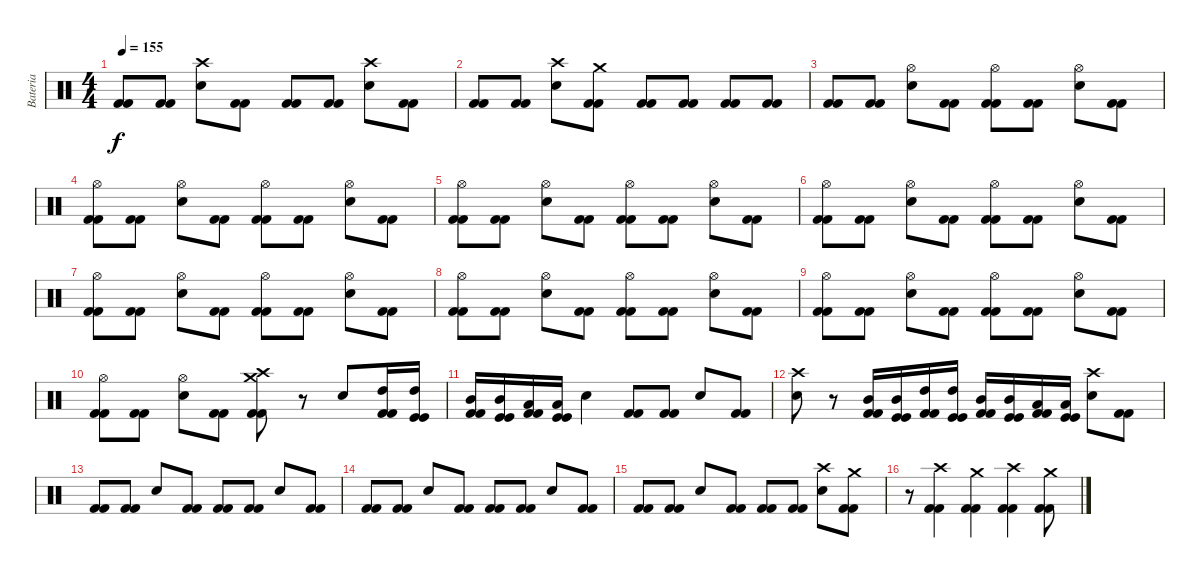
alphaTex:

\track ("Bateria" "Bateria") {instrument percussion}
\staff {score}
\articulation defaults
\ts (4 4)
\tempo 155
\clef neutral
\ks c
("Kick (hit) 2" "Kick (hit) 2").8{dy f} ("Kick (hit) 2" "Kick (hit) 2").8 ("Snare (hit) 2" "Crash high (hit)").8 ("Kick (hit) 2" "Kick (hit) 2").8 ("Kick (hit) 2" "Kick (hit) 2").8 ("Kick (hit) 2" "Kick (hit) 2").8 ("Snare (hit) 2" "Crash high (hit)").8 ("Kick (hit) 2" "Kick (hit) 2").8 |
("Kick (hit) 2" "Kick (hit) 2").8 ("Kick (hit) 2" "Kick (hit) 2").8 ("Snare (hit) 2" "Crash high (hit)").8 ("Kick (hit) 2" "Kick (hit) 2" "Crash medium (hit)").8 ("Kick (hit) 2" "Kick (hit) 2").8 ("Kick (hit) 2" "Kick (hit) 2").8 ("Kick (hit) 2" "Kick (hit) 2").8 ("Kick (hit) 2" "Kick (hit) 2").8 |
("Kick (hit) 2" "Kick (hit) 2").8 ("Kick (hit) 2" "Kick (hit) 2").8 ("Snare (hit) 2" "Hi-Hat (open)").8 ("Kick (hit) 2" "Kick (hit) 2").8 ("Kick (hit) 2" "Kick (hit) 2" "Hi-Hat (open)").8 ("Kick (hit) 2" "Kick (hit) 2").8 ("Snare (hit) 2" "Hi-Hat (open)").8 ("Kick (hit) 2" "Kick (hit) 2").8 |
("Kick (hit) 2" "Kick (hit) 2" "Hi-Hat (open)").8 ("Kick (hit) 2" "Kick (hit) 2").8 ("Snare (hit) 2" "Hi-Hat (open)").8 ("Kick (hit) 2" "Kick (hit) 2").8 ("Kick (hit) 2" "Kick (hit) 2" "Hi-Hat (open)").8 ("Kick (hit) 2" "Kick (hit) 2").8 ("Snare (hit) 2" "Hi-Hat (open)").8 ("Kick (hit) 2" "Kick (hit) 2").8 |
("Kick (hit) 2" "Kick (hit) 2" "Hi-Hat (open)").8 ("Kick (hit) 2" "Kick (hit) 2").8 ("Snare (hit) 2" "Hi-Hat (open)").8 ("Kick (hit) 2" "Kick (hit) 2").8 ("Kick (hit) 2" "Kick (hit) 2" "Hi-Hat (open)").8 ("Kick (hit) 2" "Kick (hit) 2").8 ("Snare (hit) 2" "Hi-Hat (open)").8 ("Kick (hit) 2" "Kick (hit) 2").8 |
("Kick (hit) 2" "Kick (hit) 2" "Hi-Hat (open)").8 ("Kick (hit) 2" "Kick (hit) 2").8 ("Snare (hit) 2" "Hi-Hat (open)").8 ("Kick (hit) 2" "Kick (hit) 2").8 ("Kick (hit) 2" "Kick (hit) 2" "Hi-Hat (open)").8 ("Kick (hit) 2" "Kick (hit) 2").8 ("Snare (hit) 2" "Hi-Hat (open)").8 ("Kick (hit) 2" "Kick (hit) 2").8 |
("Kick (hit) 2" "Kick (hit) 2" "Hi-Hat (open)").8 ("Kick (hit) 2" "Kick (hit) 2").8 ("Snare (hit) 2" "Hi-Hat (open)").8 ("Kick (hit) 2" "Kick (hit) 2").8 ("Kick (hit) 2" "Kick (hit) 2" "Hi-Hat (open)").8 ("Kick (hit) 2" "Kick (hit) 2").8 ("Snare (hit) 2" "Hi-Hat (open)").8 ("Kick (hit) 2" "Kick (hit) 2").8 |
("Kick (hit) 2" "Kick (hit) 2" "Hi-Hat (open)").8 ("Kick (hit) 2" "Kick (hit) 2").8 ("Snare (hit) 2" "Hi-Hat (open)").8 ("Kick (hit) 2" "Kick (hit) 2").8 ("Kick (hit) 2" "Kick (hit) 2" "Hi-Hat (open)").8 ("Kick (hit) 2" "Kick (hit) 2").8 ("Snare (hit) 2" "Hi-Hat (open)").8 ("Kick (hit) 2" "Kick (hit) 2").8 |
("Kick (hit) 2" "Kick (hit) 2" "Hi-Hat (open)").8 ("Kick (hit) 2" "Kick (hit) 2").8 ("Snare (hit) 2" "Hi-Hat (open)").8 ("Kick (hit) 2" "Kick (hit) 2").8 ("Kick (hit) 2" "Kick (hit) 2" "Hi-Hat (open)").8 ("Kick (hit) 2" "Kick (hit) 2").8 ("Snare (hit) 2" "Hi-Hat (open)").8 ("Kick (hit) 2" "Kick (hit) 2").8 |
("Kick (hit) 2" "Kick (hit) 2" "Hi-Hat (open)").8 ("Kick (hit) 2" "Kick (hit) 2").8 ("Snare (hit) 2" "Hi-Hat (open)").8 ("Kick (hit) 2" "Kick (hit) 2").8 ("Kick (hit) 2" "Kick (hit) 2" "Crash high (hit)" "Crash medium (hit)").8 r.8 "Snare (hit) 2".8 ("Kick (hit) 2" "Kick (hit) 2" "High Tom (hit)").16 ("Kick (hit)" "Kick (hit)" "High Tom (hit)").16 |
("Kick (hit) 2" "Kick (hit) 2" "Mid Tom (hit)").16 ("Kick (hit)" "Kick (hit)" "Mid Tom (hit)").16 ("Kick (hit) 2" "Kick (hit) 2" "Low Tom (hit)").16 ("Kick (hit)" "Kick (hit)" "Low Tom (hit)").16 "Snare (hit) 2".4 ("Kick (hit) 2" "Kick (hit) 2").8 ("Kick (hit) 2" "Kick (hit) 2").8 "Snare (hit) 2".8 ("Kick (hit) 2" "Kick (hit) 2").8 |
("Snare (hit) 2" "Crash high (hit)").8 r.8 ("Kick (hit) 2" "Kick (hit) 2" "Mid Tom (hit)").16 ("Kick (hit)" "Kick (hit)" "Mid Tom (hit)").16 ("Kick (hit) 2" "Kick (hit) 2" "High Tom (hit)").16 ("Kick (hit)" "Kick (hit)" "High Tom (hit)").16 ("Kick (hit) 2" "Kick (hit) 2" "Mid Tom (hit)").16 ("Kick (hit)" "Kick (hit)" "Mid Tom (hit)").16 ("Kick (hit) 2" "Kick (hit) 2" "Low Tom (hit)").16 ("Kick (hit)" "Kick (hit)" "Low Tom (hit)").16 ("Snare (hit) 2" "Crash high (hit)").8 ("Kick (hit) 2" "Kick (hit) 2").8 |
("Kick (hit) 2" "Kick (hit) 2").8 ("Kick (hit) 2" "Kick (hit) 2").8 "Snare (hit) 2".8 ("Kick (hit) 2" "Kick (hit) 2").8 ("Kick (hit) 2" "Kick (hit) 2").8 ("Kick (hit) 2" "Kick (hit) 2").8 "Snare (hit) 2".8 ("Kick (hit) 2" "Kick (hit) 2").8 |
("Kick (hit) 2" "Kick (hit) 2").8 ("Kick (hit) 2" "Kick (hit) 2").8 "Snare (hit) 2".8 ("Kick (hit) 2" "Kick (hit) 2").8 ("Kick (hit) 2" "Kick (hit) 2").8 ("Kick (hit) 2" "Kick (hit) 2").8 "Snare (hit) 2".8 ("Kick (hit) 2" "Kick (hit) 2").8 |
("Kick (hit) 2" "Kick (hit) 2").8 ("Kick (hit) 2" "Kick (hit) 2").8 "Snare (hit) 2".8 ("Kick (hit) 2" "Kick (hit) 2").8 ("Kick (hit) 2" "Kick (hit) 2").8 ("Kick (hit) 2" "Kick (hit) 2").8 ("Snare (hit) 2" "Crash high (hit)").8 ("Kick (hit) 2" "Kick (hit) 2" "Crash medium (hit)").8 |
r.8 ("Kick (hit) 2" "Kick (hit) 2" "Crash high (hit)").4 ("Kick (hit) 2" "Kick (hit) 2" "Crash medium (hit)").4 ("Kick (hit) 2" "Kick (hit) 2" "Crash high (hit)").4 ("Kick (hit) 2" "Kick (hit) 2" "Crash medium (hit)").8
